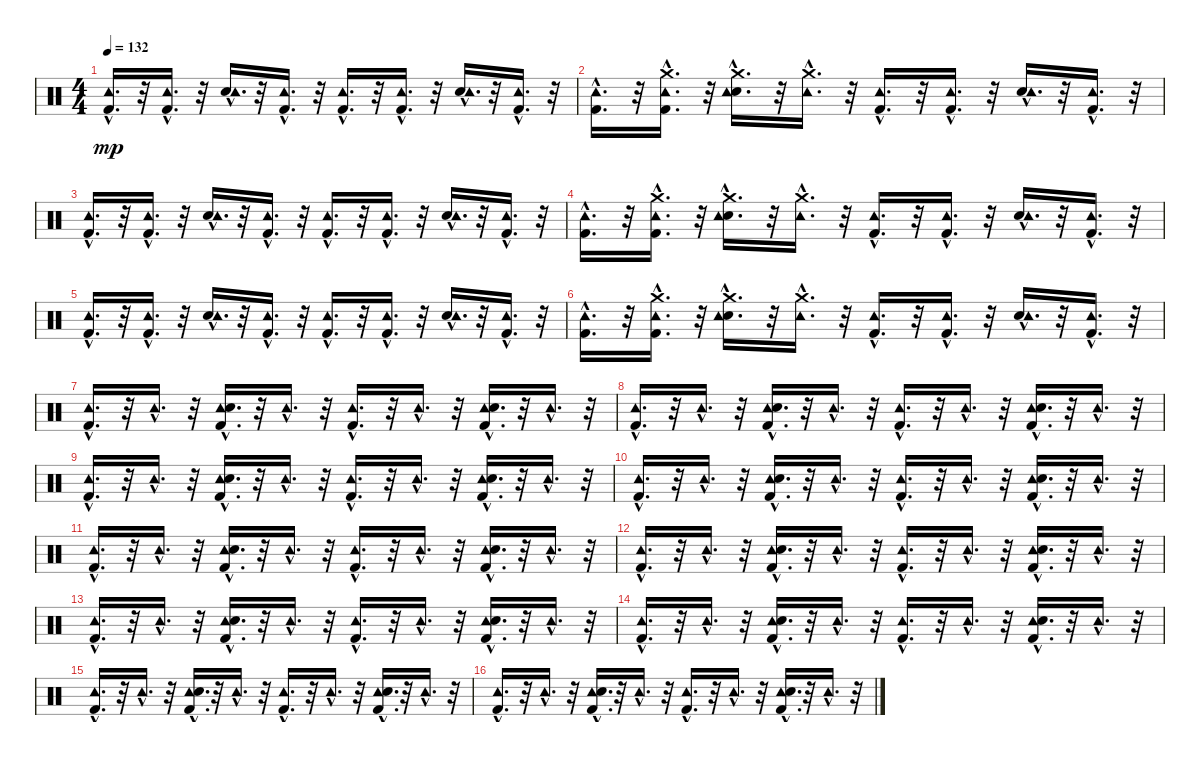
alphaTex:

\track "" {instrument percussion}
\staff {score}
\articulation defaults
\ts (4 4)
\tempo 132
\clef neutral
\ks c
("Kick (hit) 2"{hac} "Tambourine (hit)"{hac}).16{d dy mp} r.32 ("Kick (hit) 2"{hac} "Tambourine (hit)"{hac}).16{d} r.32 ("Snare (hit) 2"{hac} "Tambourine (hit)"{hac}).16{d} r.32 ("Kick (hit) 2"{hac} "Tambourine (hit)"{hac}).16{d} r.32 ("Kick (hit) 2"{hac} "Tambourine (hit)"{hac}).16{d} r.32 ("Kick (hit) 2"{hac} "Tambourine (hit)"{hac}).16{d} r.32 ("Snare (hit) 2"{hac} "Tambourine (hit)"{hac}).16{d} r.32 ("Kick (hit) 2"{hac} "Tambourine (hit)"{hac}).16{d} r.32 |
("Kick (hit) 2"{hac} "Tambourine (hit)"{hac}).16{d} r.32 ("Crash medium (hit)"{hac} "Kick (hit) 2"{hac} "Tambourine (hit)"{hac}).16{d} r.32 ("Crash medium (hit)"{hac} "Snare (hit) 2"{hac} "Tambourine (hit)"{hac}).16{d} r.32 ("Crash medium (hit)"{hac} "Tambourine (hit)"{hac}).16{d} r.32 ("Kick (hit) 2"{hac} "Tambourine (hit)"{hac}).16{d} r.32 ("Kick (hit) 2"{hac} "Tambourine (hit)"{hac}).16{d} r.32 ("Snare (hit) 2"{hac} "Tambourine (hit)"{hac}).16{d} r.32 ("Tambourine (hit)"{hac} "Kick (hit) 2"{hac}).16{d} r.32 |
("Kick (hit) 2"{hac} "Tambourine (hit)"{hac}).16{d} r.32 ("Kick (hit) 2"{hac} "Tambourine (hit)"{hac}).16{d} r.32 ("Snare (hit) 2"{hac} "Tambourine (hit)"{hac}).16{d} r.32 ("Kick (hit) 2"{hac} "Tambourine (hit)"{hac}).16{d} r.32 ("Kick (hit) 2"{hac} "Tambourine (hit)"{hac}).16{d} r.32 ("Kick (hit) 2"{hac} "Tambourine (hit)"{hac}).16{d} r.32 ("Snare (hit) 2"{hac} "Tambourine (hit)"{hac}).16{d} r.32 ("Kick (hit) 2"{hac} "Tambourine (hit)"{hac}).16{d} r.32 |
("Kick (hit) 2"{hac} "Tambourine (hit)"{hac}).16{d} r.32 ("Crash medium (hit)"{hac} "Kick (hit) 2"{hac} "Tambourine (hit)"{hac}).16{d} r.32 ("Crash medium (hit)"{hac} "Snare (hit) 2"{hac} "Tambourine (hit)"{hac}).16{d} r.32 ("Crash medium (hit)"{hac} "Tambourine (hit)"{hac}).16{d} r.32 ("Kick (hit) 2"{hac} "Tambourine (hit)"{hac}).16{d} r.32 ("Kick (hit) 2"{hac} "Tambourine (hit)"{hac}).16{d} r.32 ("Snare (hit) 2"{hac} "Tambourine (hit)"{hac}).16{d} r.32 ("Tambourine (hit)"{hac} "Kick (hit) 2"{hac}).16{d} r.32 |
("Kick (hit) 2"{hac} "Tambourine (hit)"{hac}).16{d} r.32 ("Kick (hit) 2"{hac} "Tambourine (hit)"{hac}).16{d} r.32 ("Snare (hit) 2"{hac} "Tambourine (hit)"{hac}).16{d} r.32 ("Kick (hit) 2"{hac} "Tambourine (hit)"{hac}).16{d} r.32 ("Kick (hit) 2"{hac} "Tambourine (hit)"{hac}).16{d} r.32 ("Kick (hit) 2"{hac} "Tambourine (hit)"{hac}).16{d} r.32 ("Snare (hit) 2"{hac} "Tambourine (hit)"{hac}).16{d} r.32 ("Kick (hit) 2"{hac} "Tambourine (hit)"{hac}).16{d} r.32 |
("Kick (hit) 2"{hac} "Tambourine (hit)"{hac}).16{d} r.32 ("Crash medium (hit)"{hac} "Kick (hit) 2"{hac} "Tambourine (hit)"{hac}).16{d} r.32 ("Crash medium (hit)"{hac} "Snare (hit) 2"{hac} "Tambourine (hit)"{hac}).16{d} r.32 ("Crash medium (hit)"{hac} "Tambourine (hit)"{hac}).16{d} r.32 ("Kick (hit) 2"{hac} "Tambourine (hit)"{hac}).16{d} r.32 ("Kick (hit) 2"{hac} "Tambourine (hit)"{hac}).16{d} r.32 ("Snare (hit) 2"{hac} "Tambourine (hit)"{hac}).16{d} r.32 ("Tambourine (hit)"{hac} "Kick (hit) 2"{hac}).16{d} r.32 |
("Tambourine (hit)"{hac} "Kick (hit) 2"{hac}).16{d} r.32 "Tambourine (hit)"{hac}.16{d} r.32 ("Tambourine (hit)"{hac} "Snare (hit) 2"{hac} "Kick (hit) 2"{hac}).16{d} r.32 "Tambourine (hit)"{hac}.16{d} r.32 ("Tambourine (hit)"{hac} "Kick (hit) 2"{hac}).16{d} r.32 "Tambourine (hit)"{hac}.16{d} r.32 ("Tambourine (hit)"{hac} "Kick (hit) 2"{hac} "Snare (hit) 2"{hac}).16{d} r.32 "Tambourine (hit)"{hac}.16{d} r.32 |
("Tambourine (hit)"{hac} "Kick (hit) 2"{hac}).16{d} r.32 "Tambourine (hit)"{hac}.16{d} r.32 ("Tambourine (hit)"{hac} "Snare (hit) 2"{hac} "Kick (hit) 2"{hac}).16{d} r.32 "Tambourine (hit)"{hac}.16{d} r.32 ("Tambourine (hit)"{hac} "Kick (hit) 2"{hac}).16{d} r.32 "Tambourine (hit)"{hac}.16{d} r.32 ("Tambourine (hit)"{hac} "Kick (hit) 2"{hac} "Snare (hit) 2"{hac}).16{d} r.32 "Tambourine (hit)"{hac}.16{d} r.32 |
("Tambourine (hit)"{hac} "Kick (hit) 2"{hac}).16{d} r.32 "Tambourine (hit)"{hac}.16{d} r.32 ("Tambourine (hit)"{hac} "Snare (hit) 2"{hac} "Kick (hit) 2"{hac}).16{d} r.32 "Tambourine (hit)"{hac}.16{d} r.32 ("Tambourine (hit)"{hac} "Kick (hit) 2"{hac}).16{d} r.32 "Tambourine (hit)"{hac}.16{d} r.32 ("Tambourine (hit)"{hac} "Kick (hit) 2"{hac} "Snare (hit) 2"{hac}).16{d} r.32 "Tambourine (hit)"{hac}.16{d} r.32 |
("Tambourine (hit)"{hac} "Kick (hit) 2"{hac}).16{d} r.32 "Tambourine (hit)"{hac}.16{d} r.32 ("Tambourine (hit)"{hac} "Snare (hit) 2"{hac} "Kick (hit) 2"{hac}).16{d} r.32 "Tambourine (hit)"{hac}.16{d} r.32 ("Tambourine (hit)"{hac} "Kick (hit) 2"{hac}).16{d} r.32 "Tambourine (hit)"{hac}.16{d} r.32 ("Tambourine (hit)"{hac} "Kick (hit) 2"{hac} "Snare (hit) 2"{hac}).16{d} r.32 "Tambourine (hit)"{hac}.16{d} r.32 |
("Tambourine (hit)"{hac} "Kick (hit) 2"{hac}).16{d} r.32 "Tambourine (hit)"{hac}.16{d} r.32 ("Tambourine (hit)"{hac} "Snare (hit) 2"{hac} "Kick (hit) 2"{hac}).16{d} r.32 "Tambourine (hit)"{hac}.16{d} r.32 ("Tambourine (hit)"{hac} "Kick (hit) 2"{hac}).16{d} r.32 "Tambourine (hit)"{hac}.16{d} r.32 ("Tambourine (hit)"{hac} "Kick (hit) 2"{hac} "Snare (hit) 2"{hac}).16{d} r.32 "Tambourine (hit)"{hac}.16{d} r.32 |
("Tambourine (hit)"{hac} "Kick (hit) 2"{hac}).16{d} r.32 "Tambourine (hit)"{hac}.16{d} r.32 ("Tambourine (hit)"{hac} "Snare (hit) 2"{hac} "Kick (hit) 2"{hac}).16{d} r.32 "Tambourine (hit)"{hac}.16{d} r.32 ("Tambourine (hit)"{hac} "Kick (hit) 2"{hac}).16{d} r.32 "Tambourine (hit)"{hac}.16{d} r.32 ("Tambourine (hit)"{hac} "Kick (hit) 2"{hac} "Snare (hit) 2"{hac}).16{d} r.32 "Tambourine (hit)"{hac}.16{d} r.32 |
("Tambourine (hit)"{hac} "Kick (hit) 2"{hac}).16{d} r.32 "Tambourine (hit)"{hac}.16{d} r.32 ("Tambourine (hit)"{hac} "Snare (hit) 2"{hac} "Kick (hit) 2"{hac}).16{d} r.32 "Tambourine (hit)"{hac}.16{d} r.32 ("Tambourine (hit)"{hac} "Kick (hit) 2"{hac}).16{d} r.32 "Tambourine (hit)"{hac}.16{d} r.32 ("Tambourine (hit)"{hac} "Kick (hit) 2"{hac} "Snare (hit) 2"{hac}).16{d} r.32 "Tambourine (hit)"{hac}.16{d} r.32 |
("Tambourine (hit)"{hac} "Kick (hit) 2"{hac}).16{d} r.32 "Tambourine (hit)"{hac}.16{d} r.32 ("Tambourine (hit)"{hac} "Snare (hit) 2"{hac} "Kick (hit) 2"{hac}).16{d} r.32 "Tambourine (hit)"{hac}.16{d} r.32 ("Tambourine (hit)"{hac} "Kick (hit) 2"{hac}).16{d} r.32 "Tambourine (hit)"{hac}.16{d} r.32 ("Tambourine (hit)"{hac} "Kick (hit) 2"{hac} "Snare (hit) 2"{hac}).16{d} r.32 "Tambourine (hit)"{hac}.16{d} r.32 |
("Tambourine (hit)"{hac} "Kick (hit) 2"{hac}).16{d} r.32 "Tambourine (hit)"{hac}.16{d} r.32 ("Tambourine (hit)"{hac} "Snare (hit) 2"{hac} "Kick (hit) 2"{hac}).16{d} r.32 "Tambourine (hit)"{hac}.16{d} r.32 ("Tambourine (hit)"{hac} "Kick (hit) 2"{hac}).16{d} r.32 "Tambourine (hit)"{hac}.16{d} r.32 ("Tambourine (hit)"{hac} "Kick (hit) 2"{hac} "Snare (hit) 2"{hac}).16{d} r.32 "Tambourine (hit)"{hac}.16{d} r.32 |
("Tambourine (hit)"{hac} "Kick (hit) 2"{hac}).16{d} r.32 "Tambourine (hit)"{hac}.16{d} r.32 ("Tambourine (hit)"{hac} "Snare (hit) 2"{hac} "Kick (hit) 2"{hac}).16{d} r.32 "Tambourine (hit)"{hac}.16{d} r.32 ("Tambourine (hit)"{hac} "Kick (hit) 2"{hac}).16{d} r.32 "Tambourine (hit)"{hac}.16{d} r.32 ("Tambourine (hit)"{hac} "Kick (hit) 2"{hac} "Snare (hit) 2"{hac}).16{d} r.32 "Tambourine (hit)"{hac}.16{d} r.32
